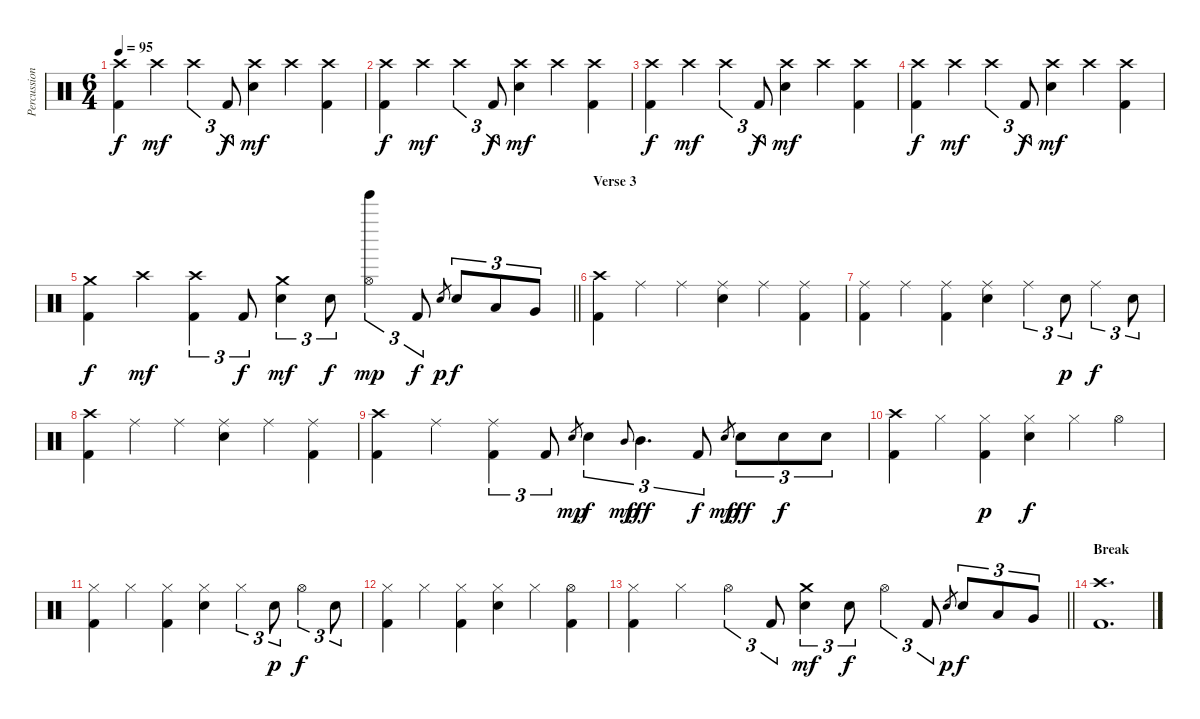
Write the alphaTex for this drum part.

\track ("Percussion" "Percussion") {instrument percussion}
\staff {score}
\articulation defaults
\ts (6 4)
\tempo 95
\clef neutral
\ks c
("Kick (hit) 2" "Crash high (hit)").4{dy f} "Crash high (hit)".4{dy mf} "Crash high (hit)".4{tu (3 2)} "Kick (hit) 2".8{tu (3 2) dy f} ("Snare (hit) 2" "Crash high (hit)").4{dy mf} "Crash high (hit)".4 ("Crash high (hit)" "Kick (hit) 2").4 |
("Kick (hit) 2" "Crash high (hit)").4{dy f} "Crash high (hit)".4{dy mf} "Crash high (hit)".4{tu (3 2)} "Kick (hit) 2".8{tu (3 2) dy f} ("Snare (hit) 2" "Crash high (hit)").4{dy mf} "Crash high (hit)".4 ("Crash high (hit)" "Kick (hit) 2").4 |
("Kick (hit) 2" "Crash high (hit)").4{dy f} "Crash high (hit)".4{dy mf} "Crash high (hit)".4{tu (3 2)} "Kick (hit) 2".8{tu (3 2) dy f} ("Snare (hit) 2" "Crash high (hit)").4{dy mf} "Crash high (hit)".4 ("Crash high (hit)" "Kick (hit) 2").4 |
("Kick (hit) 2" "Crash high (hit)").4{dy f} "Crash high (hit)".4{dy mf} "Crash high (hit)".4{tu (3 2)} "Kick (hit) 2".8{tu (3 2) dy f} ("Snare (hit) 2" "Crash high (hit)").4{dy mf} "Crash high (hit)".4 ("Crash high (hit)" "Kick (hit) 2").4 |
\barLineRight lightlight
("Crash medium (hit)" "Kick (hit) 2").4{dy f} "Crash high (hit)".4{dy mf} ("Crash high (hit)" "Kick (hit) 2").4{tu (3 2)} "Kick (hit) 2".8{tu (3 2) dy f} ("Snare (hit) 2" "Crash medium (hit)").4{tu (3 2) dy mf} "Snare (hit) 2".8{tu (3 2) dy f} ("Hi-Hat (open)" "Tinkle Bell (hit)").4{tu (3 2) dy mp} "Kick (hit) 2".8{tu (3 2) dy f} "Snare (hit) 2".8{gr dy p} "Snare (hit) 2".8{tu (3 2) dy f} "Low Tom (hit)".8{tu (3 2)} "Very Low Tom (hit)".8{tu (3 2)} |
\section ("" "Verse 3")
("Kick (hit) 2" "Crash high (hit)").4 "Ride (middle)".4 "Ride (middle)".4 ("Ride (middle)" "Snare (hit) 2").4 "Ride (middle)".4 ("Ride (middle)" "Kick (hit) 2").4 |
("Kick (hit) 2" "Ride (middle)").4 "Ride (middle)".4 ("Ride (middle)" "Kick (hit) 2").4 ("Ride (middle)" "Snare (hit) 2").4 "Ride (middle)".4{tu (3 2)} "Snare (hit) 2".8{tu (3 2) dy p} "Ride (middle)".4{tu (3 2) dy f} "Snare (hit) 2".8{tu (3 2)} |
("Kick (hit) 2" "Crash high (hit)").4 "Ride (middle)".4 "Ride (middle)".4 ("Ride (middle)" "Snare (hit) 2").4 "Ride (middle)".4 ("Ride (middle)" "Kick (hit) 2").4 |
("Kick (hit) 2" "Crash high (hit)").4 "Ride (middle)".4 ("Ride (middle)" "Kick (hit) 2").4{tu (3 2)} "Kick (hit) 2".8{tu (3 2)} "Snare (hit) 2".8{gr dy mp} "Snare (hit) 2".4{tu (3 2) dy f} "Mid Tom (hit)".8{gr onbeat dy mp} "Mid Tom (hit)".4{d tu (3 2) dy fff} "Kick (hit) 2".8{tu (3 2) dy f} "Snare (hit) 2".8{gr dy mp} "Snare (hit) 2".8{tu (3 2) dy fff} "Snare (hit) 2".8{tu (3 2) dy f} "Snare (hit) 2".8{tu (3 2)} |
("Kick (hit) 2" "Crash high (hit)").4 "Hi-Hat (closed)".4 ("Hi-Hat (closed)" "Kick (hit) 2").4{dy p} ("Hi-Hat (closed)" "Snare (hit) 2").4{dy f} "Hi-Hat (closed)".4 "Hi-Hat (open)".4 |
("Kick (hit) 2" "Hi-Hat (closed)").4 "Hi-Hat (closed)".4 ("Hi-Hat (closed)" "Kick (hit) 2").4 ("Hi-Hat (closed)" "Snare (hit) 2").4 "Hi-Hat (closed)".4{tu (3 2)} "Snare (hit) 2".8{tu (3 2) dy p} "Hi-Hat (open)".4{tu (3 2) dy f} "Snare (hit) 2".8{tu (3 2)} |
("Kick (hit) 2" "Hi-Hat (closed)").4 "Hi-Hat (closed)".4 ("Hi-Hat (closed)" "Kick (hit) 2").4 ("Hi-Hat (closed)" "Snare (hit) 2").4 "Hi-Hat (closed)".4 ("Hi-Hat (open)" "Kick (hit) 2").4 |
\barLineRight lightlight
("Kick (hit) 2" "Hi-Hat (closed)").4 "Hi-Hat (closed)".4 "Hi-Hat (open)".4{tu (3 2)} "Kick (hit) 2".8{tu (3 2)} ("Snare (hit) 2" "Crash medium (hit)").4{tu (3 2) dy mf} "Snare (hit) 2".8{tu (3 2) dy f} "Hi-Hat (open)".4{tu (3 2)} "Kick (hit) 2".8{tu (3 2)} "Snare (hit) 2".8{gr dy p} "Snare (hit) 2".8{tu (3 2) dy f} "Low Tom (hit)".8{tu (3 2)} "Very Low Tom (hit)".8{tu (3 2)} |
\section ("" "Break")
("Crash high (hit)" "Kick (hit) 2").1{d}
